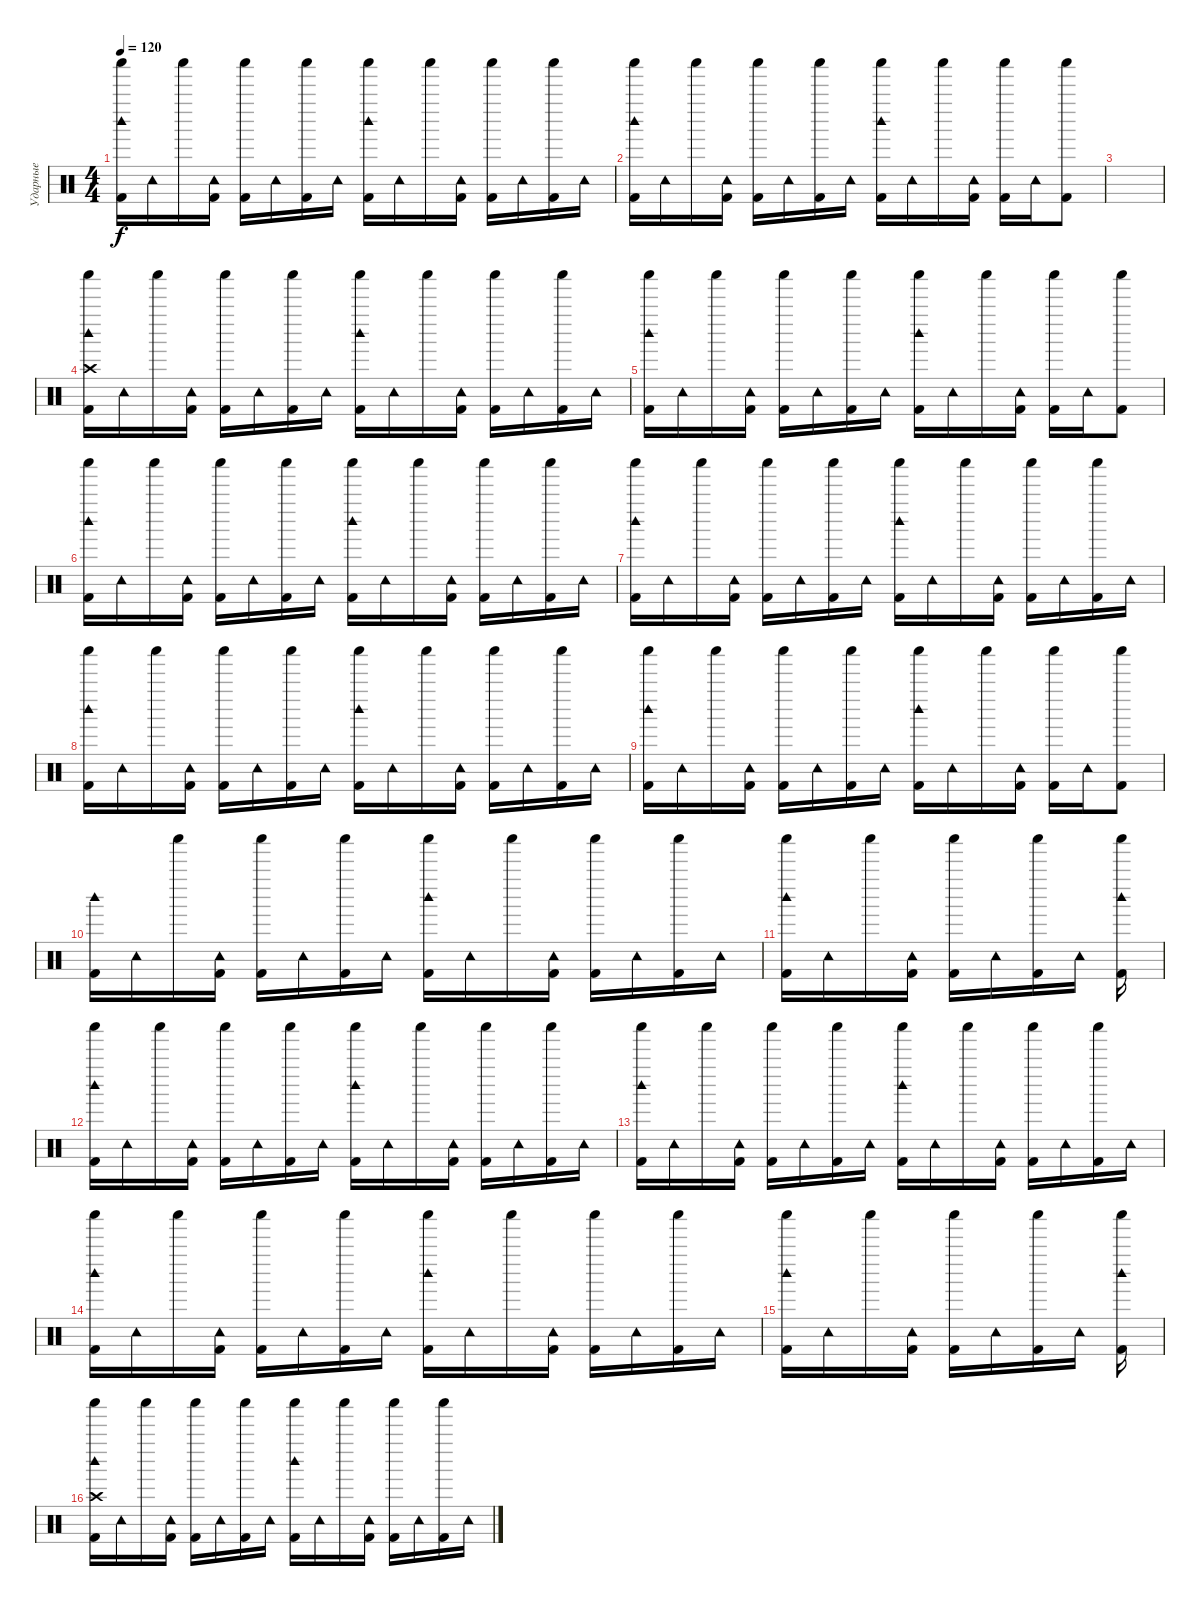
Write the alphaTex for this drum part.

\track ("Ударные" "Ударные") {instrument percussion}
\staff {score}
\articulation defaults
\ts (4 4)
\tempo 120
\clef neutral
\ks c
("Shaker (hit)" "Kick (hit) 2" "Woodblock high (hit)").16{dy f} "Tambourine (hit)".16 "Shaker (hit)".16 ("Tambourine (hit)" "Kick (hit) 2").16 ("Shaker (hit)" "Kick (hit) 2").16 "Tambourine (hit)".16 ("Shaker (hit)" "Kick (hit) 2").16 "Tambourine (hit)".16 ("Shaker (hit)" "Kick (hit) 2" "Woodblock high (hit)").16 "Tambourine (hit)".16 "Shaker (hit)".16 ("Tambourine (hit)" "Kick (hit) 2").16 ("Shaker (hit)" "Kick (hit) 2").16 "Tambourine (hit)".16 ("Shaker (hit)" "Kick (hit) 2").16 "Tambourine (hit)".16 |
("Shaker (hit)" "Kick (hit) 2" "Woodblock high (hit)").16 "Tambourine (hit)".16 "Shaker (hit)".16 ("Tambourine (hit)" "Kick (hit) 2").16 ("Shaker (hit)" "Kick (hit) 2").16 "Tambourine (hit)".16 ("Shaker (hit)" "Kick (hit) 2").16 "Tambourine (hit)".16 ("Shaker (hit)" "Kick (hit) 2" "Woodblock high (hit)").16 "Tambourine (hit)".16 "Shaker (hit)".16 ("Tambourine (hit)" "Kick (hit) 2").16 ("Shaker (hit)" "Kick (hit) 2").16 "Tambourine (hit)".16 ("Shaker (hit)" "Kick (hit) 2").8 |
|
("Shaker (hit)" "Kick (hit) 2" "Woodblock high (hit)" "Crash high (hit)").16 "Tambourine (hit)".16 "Shaker (hit)".16 ("Tambourine (hit)" "Kick (hit) 2").16 ("Shaker (hit)" "Kick (hit) 2").16 "Tambourine (hit)".16 ("Shaker (hit)" "Kick (hit) 2").16 "Tambourine (hit)".16 ("Shaker (hit)" "Kick (hit) 2" "Woodblock high (hit)").16 "Tambourine (hit)".16 "Shaker (hit)".16 ("Tambourine (hit)" "Kick (hit) 2").16 ("Shaker (hit)" "Kick (hit) 2").16 "Tambourine (hit)".16 ("Shaker (hit)" "Kick (hit) 2").16 "Tambourine (hit)".16 |
("Shaker (hit)" "Kick (hit) 2" "Woodblock high (hit)").16 "Tambourine (hit)".16 "Shaker (hit)".16 ("Tambourine (hit)" "Kick (hit) 2").16 ("Shaker (hit)" "Kick (hit) 2").16 "Tambourine (hit)".16 ("Shaker (hit)" "Kick (hit) 2").16 "Tambourine (hit)".16 ("Shaker (hit)" "Kick (hit) 2" "Woodblock high (hit)").16 "Tambourine (hit)".16 "Shaker (hit)".16 ("Tambourine (hit)" "Kick (hit) 2").16 ("Shaker (hit)" "Kick (hit) 2").16 "Tambourine (hit)".16 ("Shaker (hit)" "Kick (hit) 2").8 |
("Shaker (hit)" "Kick (hit) 2" "Woodblock high (hit)").16 "Tambourine (hit)".16 "Shaker (hit)".16 ("Tambourine (hit)" "Kick (hit) 2").16 ("Shaker (hit)" "Kick (hit) 2").16 "Tambourine (hit)".16 ("Shaker (hit)" "Kick (hit) 2").16 "Tambourine (hit)".16 ("Shaker (hit)" "Kick (hit) 2" "Woodblock high (hit)").16 "Tambourine (hit)".16 "Shaker (hit)".16 ("Tambourine (hit)" "Kick (hit) 2").16 ("Shaker (hit)" "Kick (hit) 2").16 "Tambourine (hit)".16 ("Shaker (hit)" "Kick (hit) 2").16 "Tambourine (hit)".16 |
("Shaker (hit)" "Kick (hit) 2" "Woodblock high (hit)").16 "Tambourine (hit)".16 "Shaker (hit)".16 ("Tambourine (hit)" "Kick (hit) 2").16 ("Shaker (hit)" "Kick (hit) 2").16 "Tambourine (hit)".16 ("Shaker (hit)" "Kick (hit) 2").16 "Tambourine (hit)".16 ("Shaker (hit)" "Kick (hit) 2" "Woodblock high (hit)").16 "Tambourine (hit)".16 "Shaker (hit)".16 ("Tambourine (hit)" "Kick (hit) 2").16 ("Shaker (hit)" "Kick (hit) 2").16 "Tambourine (hit)".16 ("Shaker (hit)" "Kick (hit) 2").16 "Tambourine (hit)".16 |
("Shaker (hit)" "Kick (hit) 2" "Woodblock high (hit)").16 "Tambourine (hit)".16 "Shaker (hit)".16 ("Tambourine (hit)" "Kick (hit) 2").16 ("Shaker (hit)" "Kick (hit) 2").16 "Tambourine (hit)".16 ("Shaker (hit)" "Kick (hit) 2").16 "Tambourine (hit)".16 ("Shaker (hit)" "Kick (hit) 2" "Woodblock high (hit)").16 "Tambourine (hit)".16 "Shaker (hit)".16 ("Tambourine (hit)" "Kick (hit) 2").16 ("Shaker (hit)" "Kick (hit) 2").16 "Tambourine (hit)".16 ("Shaker (hit)" "Kick (hit) 2").16 "Tambourine (hit)".16 |
("Shaker (hit)" "Kick (hit) 2" "Woodblock high (hit)").16 "Tambourine (hit)".16 "Shaker (hit)".16 ("Tambourine (hit)" "Kick (hit) 2").16 ("Shaker (hit)" "Kick (hit) 2").16 "Tambourine (hit)".16 ("Shaker (hit)" "Kick (hit) 2").16 "Tambourine (hit)".16 ("Shaker (hit)" "Kick (hit) 2" "Woodblock high (hit)").16 "Tambourine (hit)".16 "Shaker (hit)".16 ("Tambourine (hit)" "Kick (hit) 2").16 ("Shaker (hit)" "Kick (hit) 2").16 "Tambourine (hit)".16 ("Shaker (hit)" "Kick (hit) 2").8 |
("Kick (hit) 2" "Woodblock high (hit)").16 "Tambourine (hit)".16 "Shaker (hit)".16 ("Tambourine (hit)" "Kick (hit) 2").16 ("Shaker (hit)" "Kick (hit) 2").16 "Tambourine (hit)".16 ("Shaker (hit)" "Kick (hit) 2").16 "Tambourine (hit)".16 ("Shaker (hit)" "Kick (hit) 2" "Woodblock high (hit)").16 "Tambourine (hit)".16 "Shaker (hit)".16 ("Tambourine (hit)" "Kick (hit) 2").16 ("Shaker (hit)" "Kick (hit) 2").16 "Tambourine (hit)".16 ("Shaker (hit)" "Kick (hit) 2").16 "Tambourine (hit)".16 |
("Shaker (hit)" "Kick (hit) 2" "Woodblock high (hit)").16 "Tambourine (hit)".16 "Shaker (hit)".16 ("Tambourine (hit)" "Kick (hit) 2").16 ("Shaker (hit)" "Kick (hit) 2").16 "Tambourine (hit)".16 ("Shaker (hit)" "Kick (hit) 2").16 "Tambourine (hit)".16 ("Shaker (hit)" "Kick (hit) 2" "Woodblock high (hit)").16 |
("Shaker (hit)" "Kick (hit) 2" "Woodblock high (hit)").16 "Tambourine (hit)".16 "Shaker (hit)".16 ("Tambourine (hit)" "Kick (hit) 2").16 ("Shaker (hit)" "Kick (hit) 2").16 "Tambourine (hit)".16 ("Shaker (hit)" "Kick (hit) 2").16 "Tambourine (hit)".16 ("Shaker (hit)" "Kick (hit) 2" "Woodblock high (hit)").16 "Tambourine (hit)".16 "Shaker (hit)".16 ("Tambourine (hit)" "Kick (hit) 2").16 ("Shaker (hit)" "Kick (hit) 2").16 "Tambourine (hit)".16 ("Shaker (hit)" "Kick (hit) 2").16 "Tambourine (hit)".16 |
("Shaker (hit)" "Kick (hit) 2" "Woodblock high (hit)").16 "Tambourine (hit)".16 "Shaker (hit)".16 ("Tambourine (hit)" "Kick (hit) 2").16 ("Shaker (hit)" "Kick (hit) 2").16 "Tambourine (hit)".16 ("Shaker (hit)" "Kick (hit) 2").16 "Tambourine (hit)".16 ("Shaker (hit)" "Kick (hit) 2" "Woodblock high (hit)").16 "Tambourine (hit)".16 "Shaker (hit)".16 ("Tambourine (hit)" "Kick (hit) 2").16 ("Shaker (hit)" "Kick (hit) 2").16 "Tambourine (hit)".16 ("Shaker (hit)" "Kick (hit) 2").16 "Tambourine (hit)".16 |
("Shaker (hit)" "Kick (hit) 2" "Woodblock high (hit)").16 "Tambourine (hit)".16 "Shaker (hit)".16 ("Tambourine (hit)" "Kick (hit) 2").16 ("Shaker (hit)" "Kick (hit) 2").16 "Tambourine (hit)".16 ("Shaker (hit)" "Kick (hit) 2").16 "Tambourine (hit)".16 ("Shaker (hit)" "Kick (hit) 2" "Woodblock high (hit)").16 "Tambourine (hit)".16 "Shaker (hit)".16 ("Tambourine (hit)" "Kick (hit) 2").16 ("Shaker (hit)" "Kick (hit) 2").16 "Tambourine (hit)".16 ("Shaker (hit)" "Kick (hit) 2").16 "Tambourine (hit)".16 |
("Shaker (hit)" "Kick (hit) 2" "Woodblock high (hit)").16 "Tambourine (hit)".16 "Shaker (hit)".16 ("Tambourine (hit)" "Kick (hit) 2").16 ("Shaker (hit)" "Kick (hit) 2").16 "Tambourine (hit)".16 ("Shaker (hit)" "Kick (hit) 2").16 "Tambourine (hit)".16 ("Shaker (hit)" "Kick (hit) 2" "Woodblock high (hit)").16 |
("Shaker (hit)" "Kick (hit) 2" "Woodblock high (hit)" "Crash high (hit)").16 "Tambourine (hit)".16 "Shaker (hit)".16 ("Tambourine (hit)" "Kick (hit) 2").16 ("Shaker (hit)" "Kick (hit) 2").16 "Tambourine (hit)".16 ("Shaker (hit)" "Kick (hit) 2").16 "Tambourine (hit)".16 ("Shaker (hit)" "Kick (hit) 2" "Woodblock high (hit)").16 "Tambourine (hit)".16 "Shaker (hit)".16 ("Tambourine (hit)" "Kick (hit) 2").16 ("Shaker (hit)" "Kick (hit) 2").16 "Tambourine (hit)".16 ("Shaker (hit)" "Kick (hit) 2").16 "Tambourine (hit)".16
